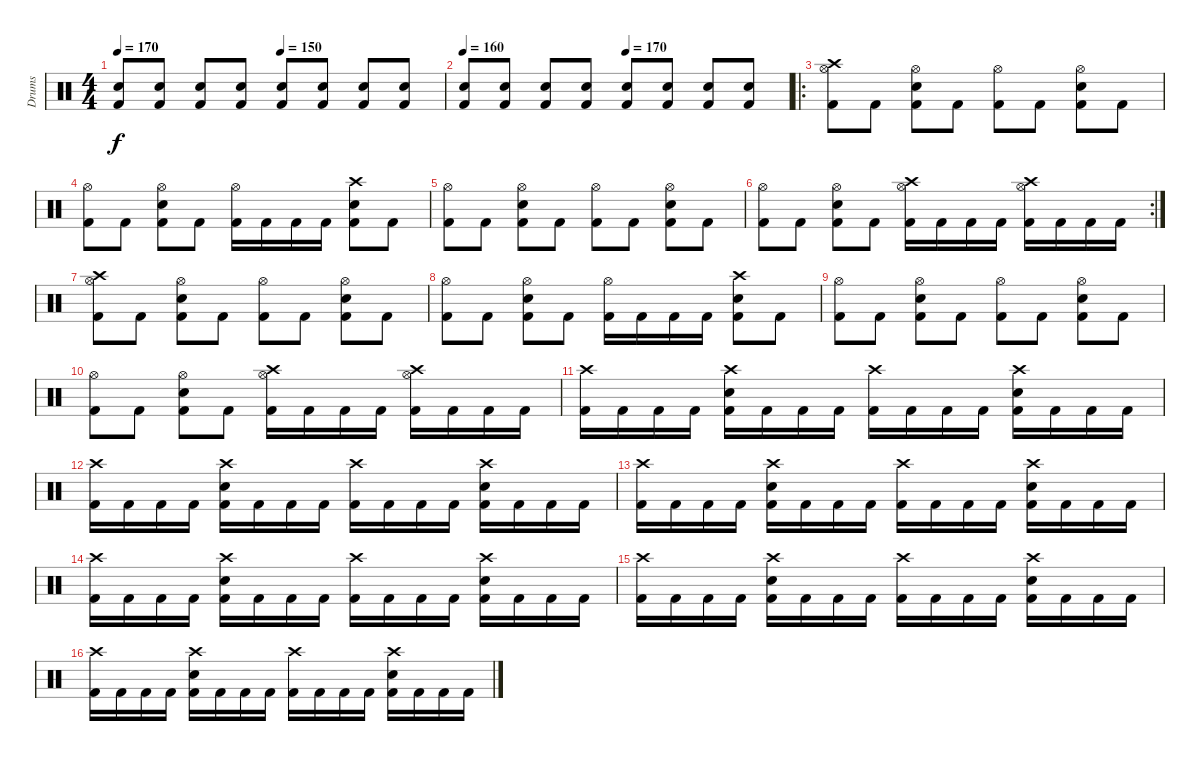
\track ("Drums" "Drums") {instrument percussion}
\staff {score}
\articulation defaults
\ts (4 4)
\tempo 170
\tempo 140
\tempo (150 0.5)
\tempo 170
\clef neutral
\ks c
("Kick (hit) 2" "Snare (hit) 2").8{dy f volume 6} ("Kick (hit) 2" "Snare (hit) 2").8 ("Kick (hit) 2" "Snare (hit) 2").8 ("Kick (hit) 2" "Snare (hit) 2").8 ("Kick (hit) 2" "Snare (hit) 2").8{volume 9} ("Kick (hit) 2" "Snare (hit) 2").8 ("Kick (hit) 2" "Snare (hit) 2").8 ("Kick (hit) 2" "Snare (hit) 2").8 |
\tempo 160
\tempo (170 0.5)
("Kick (hit) 2" "Snare (hit) 2").8{volume 13} ("Kick (hit) 2" "Snare (hit) 2").8 ("Kick (hit) 2" "Snare (hit) 2").8 ("Kick (hit) 2" "Snare (hit) 2").8 ("Kick (hit) 2" "Snare (hit) 2").8{volume 16} ("Kick (hit) 2" "Snare (hit) 2").8 ("Kick (hit) 2" "Snare (hit) 2").8 ("Kick (hit) 2" "Snare (hit) 2").8 |
\ro
("Kick (hit) 2" "Hi-Hat (open)" "Crash high (hit)").8 "Kick (hit) 2".8 ("Kick (hit) 2" "Snare (hit) 2" "Hi-Hat (open)").8 "Kick (hit) 2".8 ("Kick (hit) 2" "Hi-Hat (open)").8 "Kick (hit) 2".8 ("Kick (hit) 2" "Snare (hit) 2" "Hi-Hat (open)").8 "Kick (hit) 2".8 |
("Kick (hit) 2" "Hi-Hat (open)").8 "Kick (hit) 2".8 ("Kick (hit) 2" "Snare (hit) 2" "Hi-Hat (open)").8 "Kick (hit) 2".8 ("Kick (hit) 2" "Hi-Hat (open)").16 "Kick (hit) 2".16 "Kick (hit) 2".16 "Kick (hit) 2".16 ("Kick (hit) 2" "Snare (hit) 2" "Crash high (hit)").8 "Kick (hit) 2".8 |
("Kick (hit) 2" "Hi-Hat (open)").8 "Kick (hit) 2".8 ("Kick (hit) 2" "Hi-Hat (open)" "Snare (hit) 2").8 "Kick (hit) 2".8 ("Kick (hit) 2" "Hi-Hat (open)").8 "Kick (hit) 2".8 ("Kick (hit) 2" "Hi-Hat (open)" "Snare (hit) 2").8 "Kick (hit) 2".8 |
\rc 2
("Kick (hit) 2" "Hi-Hat (open)").8 "Kick (hit) 2".8 ("Kick (hit) 2" "Hi-Hat (open)" "Snare (hit) 2").8 "Kick (hit) 2".8 ("Kick (hit) 2" "Hi-Hat (open)" "Crash high (hit)").16 "Kick (hit) 2".16 "Kick (hit) 2".16 "Kick (hit) 2".16 ("Kick (hit) 2" "Hi-Hat (open)" "Crash high (hit)").16 "Kick (hit) 2".16 "Kick (hit) 2".16 "Kick (hit) 2".16 |
("Kick (hit) 2" "Hi-Hat (open)" "Crash high (hit)").8 "Kick (hit) 2".8 ("Kick (hit) 2" "Snare (hit) 2" "Hi-Hat (open)").8 "Kick (hit) 2".8 ("Kick (hit) 2" "Hi-Hat (open)").8 "Kick (hit) 2".8 ("Kick (hit) 2" "Snare (hit) 2" "Hi-Hat (open)").8 "Kick (hit) 2".8 |
("Kick (hit) 2" "Hi-Hat (open)").8 "Kick (hit) 2".8 ("Kick (hit) 2" "Snare (hit) 2" "Hi-Hat (open)").8 "Kick (hit) 2".8 ("Kick (hit) 2" "Hi-Hat (open)").16 "Kick (hit) 2".16 "Kick (hit) 2".16 "Kick (hit) 2".16 ("Kick (hit) 2" "Snare (hit) 2" "Crash high (hit)").8 "Kick (hit) 2".8 |
("Kick (hit) 2" "Hi-Hat (open)").8 "Kick (hit) 2".8 ("Kick (hit) 2" "Hi-Hat (open)" "Snare (hit) 2").8 "Kick (hit) 2".8 ("Kick (hit) 2" "Hi-Hat (open)").8 "Kick (hit) 2".8 ("Kick (hit) 2" "Hi-Hat (open)" "Snare (hit) 2").8 "Kick (hit) 2".8 |
("Kick (hit) 2" "Hi-Hat (open)").8 "Kick (hit) 2".8 ("Kick (hit) 2" "Hi-Hat (open)" "Snare (hit) 2").8 "Kick (hit) 2".8 ("Kick (hit) 2" "Hi-Hat (open)" "Crash high (hit)").16 "Kick (hit) 2".16 "Kick (hit) 2".16 "Kick (hit) 2".16 ("Kick (hit) 2" "Hi-Hat (open)" "Crash high (hit)").16 "Kick (hit) 2".16 "Kick (hit) 2".16 "Kick (hit) 2".16 |
("Kick (hit) 2" "Crash high (hit)").16 "Kick (hit) 2".16 "Kick (hit) 2".16 "Kick (hit) 2".16 ("Kick (hit) 2" "Snare (hit) 2" "Crash high (hit)").16 "Kick (hit) 2".16 "Kick (hit) 2".16 "Kick (hit) 2".16 ("Kick (hit) 2" "Crash high (hit)").16 "Kick (hit) 2".16 "Kick (hit) 2".16 "Kick (hit) 2".16 ("Kick (hit) 2" "Snare (hit) 2" "Crash high (hit)").16 "Kick (hit) 2".16 "Kick (hit) 2".16 "Kick (hit) 2".16 |
("Kick (hit) 2" "Crash high (hit)").16 "Kick (hit) 2".16 "Kick (hit) 2".16 "Kick (hit) 2".16 ("Kick (hit) 2" "Snare (hit) 2" "Crash high (hit)").16 "Kick (hit) 2".16 "Kick (hit) 2".16 "Kick (hit) 2".16 ("Kick (hit) 2" "Crash high (hit)").16 "Kick (hit) 2".16 "Kick (hit) 2".16 "Kick (hit) 2".16 ("Kick (hit) 2" "Snare (hit) 2" "Crash high (hit)").16 "Kick (hit) 2".16 "Kick (hit) 2".16 "Kick (hit) 2".16 |
("Kick (hit) 2" "Crash high (hit)").16 "Kick (hit) 2".16 "Kick (hit) 2".16 "Kick (hit) 2".16 ("Kick (hit) 2" "Snare (hit) 2" "Crash high (hit)").16 "Kick (hit) 2".16 "Kick (hit) 2".16 "Kick (hit) 2".16 ("Kick (hit) 2" "Crash high (hit)").16 "Kick (hit) 2".16 "Kick (hit) 2".16 "Kick (hit) 2".16 ("Kick (hit) 2" "Snare (hit) 2" "Crash high (hit)").16 "Kick (hit) 2".16 "Kick (hit) 2".16 "Kick (hit) 2".16 |
("Kick (hit) 2" "Crash high (hit)").16 "Kick (hit) 2".16 "Kick (hit) 2".16 "Kick (hit) 2".16 ("Kick (hit) 2" "Snare (hit) 2" "Crash high (hit)").16 "Kick (hit) 2".16 "Kick (hit) 2".16 "Kick (hit) 2".16 ("Kick (hit) 2" "Crash high (hit)").16 "Kick (hit) 2".16 "Kick (hit) 2".16 "Kick (hit) 2".16 ("Kick (hit) 2" "Snare (hit) 2" "Crash high (hit)").16 "Kick (hit) 2".16 "Kick (hit) 2".16 "Kick (hit) 2".16 |
("Kick (hit) 2" "Crash high (hit)").16 "Kick (hit) 2".16 "Kick (hit) 2".16 "Kick (hit) 2".16 ("Kick (hit) 2" "Snare (hit) 2" "Crash high (hit)").16 "Kick (hit) 2".16 "Kick (hit) 2".16 "Kick (hit) 2".16 ("Kick (hit) 2" "Crash high (hit)").16 "Kick (hit) 2".16 "Kick (hit) 2".16 "Kick (hit) 2".16 ("Kick (hit) 2" "Snare (hit) 2" "Crash high (hit)").16 "Kick (hit) 2".16 "Kick (hit) 2".16 "Kick (hit) 2".16 |
("Kick (hit) 2" "Crash high (hit)").16 "Kick (hit) 2".16 "Kick (hit) 2".16 "Kick (hit) 2".16 ("Kick (hit) 2" "Snare (hit) 2" "Crash high (hit)").16 "Kick (hit) 2".16 "Kick (hit) 2".16 "Kick (hit) 2".16 ("Kick (hit) 2" "Crash high (hit)").16 "Kick (hit) 2".16 "Kick (hit) 2".16 "Kick (hit) 2".16 ("Kick (hit) 2" "Snare (hit) 2" "Crash high (hit)").16 "Kick (hit) 2".16 "Kick (hit) 2".16 "Kick (hit) 2".16
